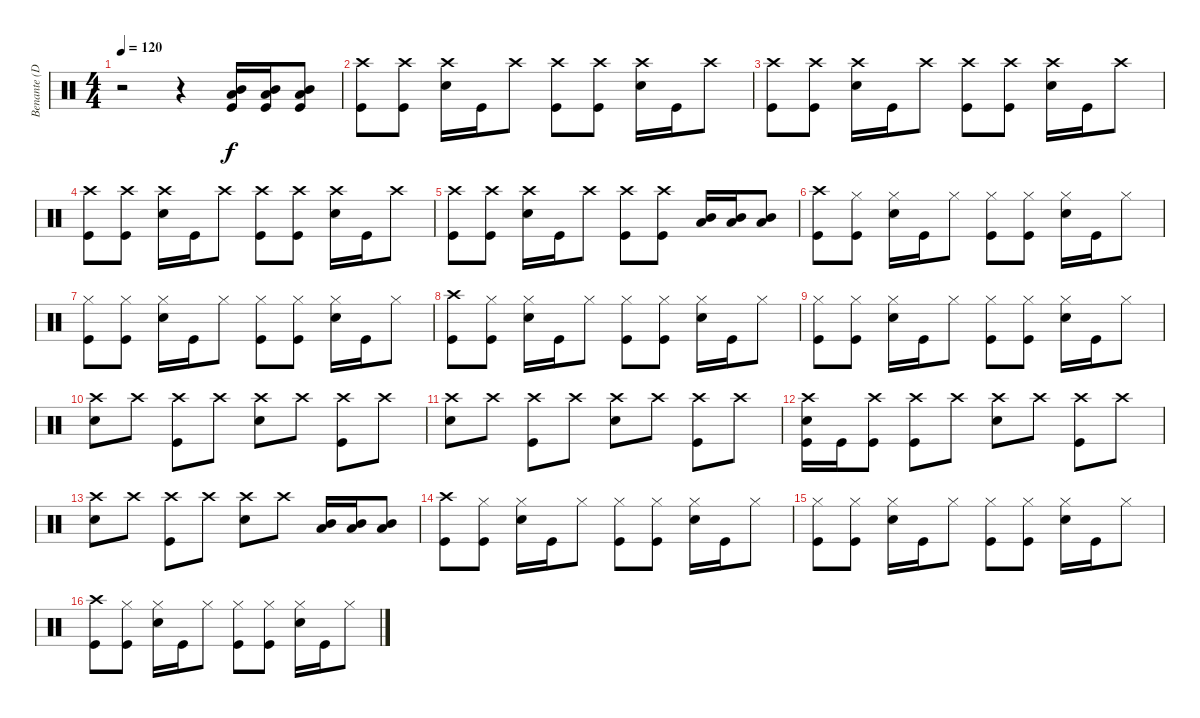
\track ("Benante (Drums)" "Benante (D") {instrument percussion}
\staff {score}
\articulation defaults
\ts (4 4)
\tempo 120
\tempo 100
\tempo 120
\clef neutral
\ks c
r.2{dy f} r.4 ("Low Tom (hit)" "Mid Tom (hit)" "Kick (hit)").16 ("Low Tom (hit)" "Mid Tom (hit)" "Kick (hit)").16 ("Low Tom (hit)" "Mid Tom (hit)" "Kick (hit)").8 |
("Crash high (hit)" "Kick (hit)").8 ("Crash high (hit)" "Kick (hit)").8 ("Crash high (hit)" "Snare (hit) 2").16 "Kick (hit)".16 "Crash high (hit)".8 ("Crash high (hit)" "Kick (hit)").8 ("Crash high (hit)" "Kick (hit)").8 ("Crash high (hit)" "Snare (hit) 2").16 "Kick (hit)".16 "Crash high (hit)".8 |
("Crash high (hit)" "Kick (hit)").8 ("Crash high (hit)" "Kick (hit)").8 ("Crash high (hit)" "Snare (hit) 2").16 "Kick (hit)".16 "Crash high (hit)".8 ("Crash high (hit)" "Kick (hit)").8 ("Crash high (hit)" "Kick (hit)").8 ("Crash high (hit)" "Snare (hit) 2").16 "Kick (hit)".16 "Crash high (hit)".8 |
("Crash high (hit)" "Kick (hit)").8 ("Crash high (hit)" "Kick (hit)").8 ("Crash high (hit)" "Snare (hit) 2").16 "Kick (hit)".16 "Crash high (hit)".8 ("Crash high (hit)" "Kick (hit)").8 ("Crash high (hit)" "Kick (hit)").8 ("Crash high (hit)" "Snare (hit) 2").16 "Kick (hit)".16 "Crash high (hit)".8 |
("Crash high (hit)" "Kick (hit)").8 ("Crash high (hit)" "Kick (hit)").8 ("Crash high (hit)" "Snare (hit) 2").16 "Kick (hit)".16 "Crash high (hit)".8 ("Crash high (hit)" "Kick (hit)").8 ("Crash high (hit)" "Kick (hit)").8 ("Low Tom (hit)" "Mid Tom (hit)").16 ("Low Tom (hit)" "Mid Tom (hit)").16 ("Low Tom (hit)" "Mid Tom (hit)").8 |
("Crash high (hit)" "Kick (hit)").8 ("Hi-Hat (closed)" "Kick (hit)").8 ("Hi-Hat (closed)" "Snare (hit) 2").16 "Kick (hit)".16 "Hi-Hat (closed)".8 ("Hi-Hat (closed)" "Kick (hit)").8 ("Hi-Hat (closed)" "Kick (hit)").8 ("Hi-Hat (closed)" "Snare (hit) 2").16 "Kick (hit)".16 "Hi-Hat (closed)".8 |
("Hi-Hat (closed)" "Kick (hit)").8 ("Hi-Hat (closed)" "Kick (hit)").8 ("Hi-Hat (closed)" "Snare (hit) 2").16 "Kick (hit)".16 "Hi-Hat (closed)".8 ("Hi-Hat (closed)" "Kick (hit)").8 ("Hi-Hat (closed)" "Kick (hit)").8 ("Hi-Hat (closed)" "Snare (hit) 2").16 "Kick (hit)".16 "Hi-Hat (closed)".8 |
("Crash high (hit)" "Kick (hit)").8 ("Hi-Hat (closed)" "Kick (hit)").8 ("Hi-Hat (closed)" "Snare (hit) 2").16 "Kick (hit)".16 "Hi-Hat (closed)".8 ("Hi-Hat (closed)" "Kick (hit)").8 ("Hi-Hat (closed)" "Kick (hit)").8 ("Hi-Hat (closed)" "Snare (hit) 2").16 "Kick (hit)".16 "Hi-Hat (closed)".8 |
("Hi-Hat (closed)" "Kick (hit)").8 ("Hi-Hat (closed)" "Kick (hit)").8 ("Hi-Hat (closed)" "Snare (hit) 2").16 "Kick (hit)".16 "Hi-Hat (closed)".8 ("Hi-Hat (closed)" "Kick (hit)").8 ("Hi-Hat (closed)" "Kick (hit)").8 ("Hi-Hat (closed)" "Snare (hit) 2").16 "Kick (hit)".16 "Hi-Hat (closed)".8 |
("Crash high (hit)" "Snare (hit) 2").8 "Crash high (hit)".8 ("Crash high (hit)" "Kick (hit)").8 "Crash high (hit)".8 ("Crash high (hit)" "Snare (hit) 2").8 "Crash high (hit)".8 ("Crash high (hit)" "Kick (hit)").8 "Crash high (hit)".8 |
("Crash high (hit)" "Snare (hit) 2").8 "Crash high (hit)".8 ("Crash high (hit)" "Kick (hit)").8 "Crash high (hit)".8 ("Crash high (hit)" "Snare (hit) 2").8 "Crash high (hit)".8 ("Crash high (hit)" "Kick (hit)").8 "Crash high (hit)".8 |
("Crash high (hit)" "Snare (hit) 2" "Kick (hit)").16 "Kick (hit)".16 ("Crash high (hit)" "Kick (hit)").8 ("Crash high (hit)" "Kick (hit)").8 "Crash high (hit)".8 ("Crash high (hit)" "Snare (hit) 2").8 "Crash high (hit)".8 ("Crash high (hit)" "Kick (hit)").8 "Crash high (hit)".8 |
("Crash high (hit)" "Snare (hit) 2").8 "Crash high (hit)".8 ("Crash high (hit)" "Kick (hit)").8 "Crash high (hit)".8 ("Crash high (hit)" "Snare (hit) 2").8 "Crash high (hit)".8 ("Mid Tom (hit)" "Low Tom (hit)").16 ("Mid Tom (hit)" "Low Tom (hit)").16 ("Mid Tom (hit)" "Low Tom (hit)").8 |
("Crash high (hit)" "Kick (hit)").8 ("Hi-Hat (closed)" "Kick (hit)").8 ("Hi-Hat (closed)" "Snare (hit) 2").16 "Kick (hit)".16 "Hi-Hat (closed)".8 ("Hi-Hat (closed)" "Kick (hit)").8 ("Hi-Hat (closed)" "Kick (hit)").8 ("Hi-Hat (closed)" "Snare (hit) 2").16 "Kick (hit)".16 "Hi-Hat (closed)".8 |
("Hi-Hat (closed)" "Kick (hit)").8 ("Hi-Hat (closed)" "Kick (hit)").8 ("Hi-Hat (closed)" "Snare (hit) 2").16 "Kick (hit)".16 "Hi-Hat (closed)".8 ("Hi-Hat (closed)" "Kick (hit)").8 ("Hi-Hat (closed)" "Kick (hit)").8 ("Hi-Hat (closed)" "Snare (hit) 2").16 "Kick (hit)".16 "Hi-Hat (closed)".8 |
("Crash high (hit)" "Kick (hit)").8 ("Hi-Hat (closed)" "Kick (hit)").8 ("Hi-Hat (closed)" "Snare (hit) 2").16 "Kick (hit)".16 "Hi-Hat (closed)".8 ("Hi-Hat (closed)" "Kick (hit)").8 ("Hi-Hat (closed)" "Kick (hit)").8 ("Hi-Hat (closed)" "Snare (hit) 2").16 "Kick (hit)".16 "Hi-Hat (closed)".8
